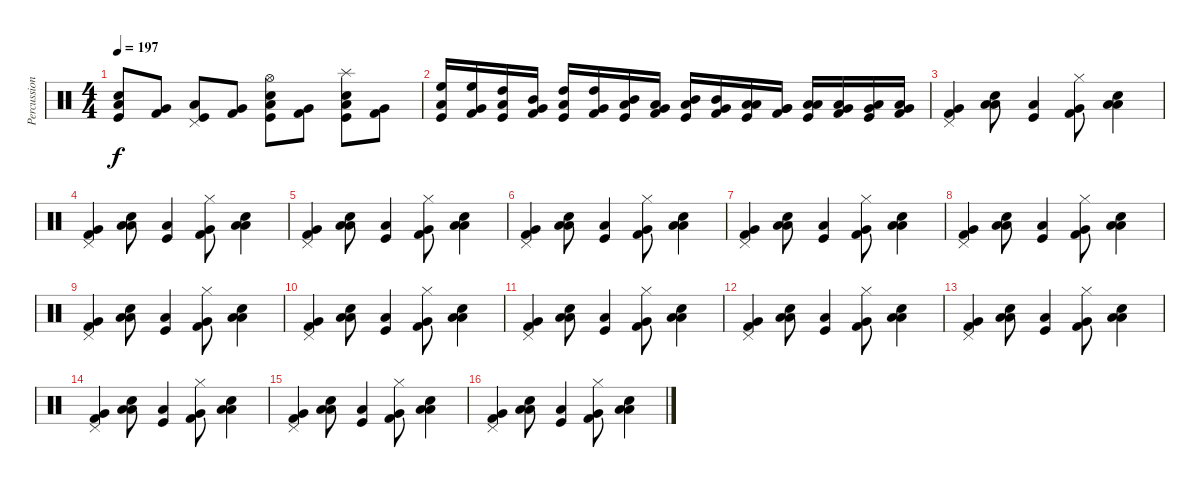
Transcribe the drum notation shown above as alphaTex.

\track ("Percussions" "Percussion") {instrument percussion}
\staff {score}
\articulation defaults
\ts (4 4)
\tempo 197
\clef neutral
\ks c
("Electric Snare (hit)" "Kick (hit)" "Low Tom (hit)").8{dy f} ("Kick (hit) 2" "Very Low Tom (hit)").8 ("Pedal Hi-Hat (hit)" "Kick (hit)" "Low Tom (hit)").8 ("Kick (hit) 2" "Very Low Tom (hit)").8 ("Hi-Hat (open)" "Electric Snare (hit)" "Kick (hit)" "Low Tom (hit)").8 ("Kick (hit) 2" "Very Low Tom (hit)").8 ("Splash (hit)" "Electric Snare (hit)" "Kick (hit)" "Low Tom (hit)").8 ("Kick (hit) 2" "Very Low Tom (hit)").8 |
("High Floor Tom (hit)" "Kick (hit)" "Low Tom (hit)").16 ("High Floor Tom (hit)" "Kick (hit) 2" "Very Low Tom (hit)").16 ("High Tom (hit)" "Kick (hit)" "Low Tom (hit)").16 ("Mid Tom (hit)" "Kick (hit) 2" "Very Low Tom (hit)").16 ("High Tom (hit)" "Kick (hit)" "Low Tom (hit)").16 ("High Tom (hit)" "Kick (hit) 2" "Very Low Tom (hit)").16 ("Mid Tom (hit)" "Kick (hit)" "Low Tom (hit)").16 ("Low Tom (hit)" "Kick (hit) 2" "Very Low Tom (hit)").16 ("Mid Tom (hit)" "Kick (hit)" "Low Tom (hit)").16 ("Mid Tom (hit)" "Kick (hit) 2" "Very Low Tom (hit)").16 ("Low Tom (hit)" "Kick (hit)" "Low Tom (hit)").16 ("Very Low Tom (hit)" "Kick (hit) 2" "Very Low Tom (hit)").16 ("Low Tom (hit)" "Kick (hit)" "Low Tom (hit)").16 ("Low Tom (hit)" "Kick (hit) 2" "Very Low Tom (hit)").16 ("Very Low Tom (hit)" "Kick (hit)" "Low Tom (hit)").16 ("Low Floor Tom (hit)" "Kick (hit) 2" "Very Low Tom (hit)").16 |
("Pedal Hi-Hat (hit)" "Very Low Tom (hit)" "Kick (hit) 2").4 ("Low Tom (hit)" "Low Floor Tom (hit)" "Electric Snare (hit)").8 ("Low Tom (hit)" "Kick (hit)").4 ("Hi-Hat (closed)" "Very Low Tom (hit)" "Kick (hit) 2").8 ("Low Tom (hit)" "Low Floor Tom (hit)" "Electric Snare (hit)").4 |
("Pedal Hi-Hat (hit)" "Very Low Tom (hit)" "Kick (hit) 2").4 ("Low Tom (hit)" "Low Floor Tom (hit)" "Electric Snare (hit)").8 ("Low Tom (hit)" "Kick (hit)").4 ("Hi-Hat (closed)" "Very Low Tom (hit)" "Kick (hit) 2").8 ("Low Tom (hit)" "Low Floor Tom (hit)" "Electric Snare (hit)").4 |
("Pedal Hi-Hat (hit)" "Very Low Tom (hit)" "Kick (hit) 2").4 ("Low Tom (hit)" "Low Floor Tom (hit)" "Electric Snare (hit)").8 ("Low Tom (hit)" "Kick (hit)").4 ("Hi-Hat (closed)" "Very Low Tom (hit)" "Kick (hit) 2").8 ("Low Tom (hit)" "Low Floor Tom (hit)" "Electric Snare (hit)").4 |
("Pedal Hi-Hat (hit)" "Very Low Tom (hit)" "Kick (hit) 2").4 ("Low Tom (hit)" "Low Floor Tom (hit)" "Electric Snare (hit)").8 ("Low Tom (hit)" "Kick (hit)").4 ("Hi-Hat (closed)" "Very Low Tom (hit)" "Kick (hit) 2").8 ("Low Tom (hit)" "Low Floor Tom (hit)" "Electric Snare (hit)").4 |
("Pedal Hi-Hat (hit)" "Very Low Tom (hit)" "Kick (hit) 2").4 ("Low Tom (hit)" "Low Floor Tom (hit)" "Electric Snare (hit)").8 ("Low Tom (hit)" "Kick (hit)").4 ("Hi-Hat (closed)" "Very Low Tom (hit)" "Kick (hit) 2").8 ("Low Tom (hit)" "Low Floor Tom (hit)" "Electric Snare (hit)").4 |
("Pedal Hi-Hat (hit)" "Very Low Tom (hit)" "Kick (hit) 2").4 ("Low Tom (hit)" "Low Floor Tom (hit)" "Electric Snare (hit)").8 ("Low Tom (hit)" "Kick (hit)").4 ("Hi-Hat (closed)" "Very Low Tom (hit)" "Kick (hit) 2").8 ("Low Tom (hit)" "Low Floor Tom (hit)" "Electric Snare (hit)").4 |
("Pedal Hi-Hat (hit)" "Very Low Tom (hit)" "Kick (hit) 2").4 ("Low Tom (hit)" "Low Floor Tom (hit)" "Electric Snare (hit)").8 ("Low Tom (hit)" "Kick (hit)").4 ("Hi-Hat (closed)" "Very Low Tom (hit)" "Kick (hit) 2").8 ("Low Tom (hit)" "Low Floor Tom (hit)" "Electric Snare (hit)").4 |
("Pedal Hi-Hat (hit)" "Very Low Tom (hit)" "Kick (hit) 2").4 ("Low Tom (hit)" "Low Floor Tom (hit)" "Electric Snare (hit)").8 ("Low Tom (hit)" "Kick (hit)").4 ("Hi-Hat (closed)" "Very Low Tom (hit)" "Kick (hit) 2").8 ("Low Tom (hit)" "Low Floor Tom (hit)" "Electric Snare (hit)").4 |
("Pedal Hi-Hat (hit)" "Very Low Tom (hit)" "Kick (hit) 2").4 ("Low Tom (hit)" "Low Floor Tom (hit)" "Electric Snare (hit)").8 ("Low Tom (hit)" "Kick (hit)").4 ("Hi-Hat (closed)" "Very Low Tom (hit)" "Kick (hit) 2").8 ("Low Tom (hit)" "Low Floor Tom (hit)" "Electric Snare (hit)").4 |
("Pedal Hi-Hat (hit)" "Very Low Tom (hit)" "Kick (hit) 2").4 ("Low Tom (hit)" "Low Floor Tom (hit)" "Electric Snare (hit)").8 ("Low Tom (hit)" "Kick (hit)").4 ("Hi-Hat (closed)" "Very Low Tom (hit)" "Kick (hit) 2").8 ("Low Tom (hit)" "Low Floor Tom (hit)" "Electric Snare (hit)").4 |
("Pedal Hi-Hat (hit)" "Very Low Tom (hit)" "Kick (hit) 2").4 ("Low Tom (hit)" "Low Floor Tom (hit)" "Electric Snare (hit)").8 ("Low Tom (hit)" "Kick (hit)").4 ("Hi-Hat (closed)" "Very Low Tom (hit)" "Kick (hit) 2").8 ("Low Tom (hit)" "Low Floor Tom (hit)" "Electric Snare (hit)").4 |
("Pedal Hi-Hat (hit)" "Very Low Tom (hit)" "Kick (hit) 2").4 ("Low Tom (hit)" "Low Floor Tom (hit)" "Electric Snare (hit)").8 ("Low Tom (hit)" "Kick (hit)").4 ("Hi-Hat (closed)" "Very Low Tom (hit)" "Kick (hit) 2").8 ("Low Tom (hit)" "Low Floor Tom (hit)" "Electric Snare (hit)").4 |
("Pedal Hi-Hat (hit)" "Very Low Tom (hit)" "Kick (hit) 2").4 ("Low Tom (hit)" "Low Floor Tom (hit)" "Electric Snare (hit)").8 ("Low Tom (hit)" "Kick (hit)").4 ("Hi-Hat (closed)" "Very Low Tom (hit)" "Kick (hit) 2").8 ("Low Tom (hit)" "Low Floor Tom (hit)" "Electric Snare (hit)").4 |
("Pedal Hi-Hat (hit)" "Very Low Tom (hit)" "Kick (hit) 2").4 ("Low Tom (hit)" "Low Floor Tom (hit)" "Electric Snare (hit)").8 ("Low Tom (hit)" "Kick (hit)").4 ("Hi-Hat (closed)" "Very Low Tom (hit)" "Kick (hit) 2").8 ("Low Tom (hit)" "Low Floor Tom (hit)" "Electric Snare (hit)").4
